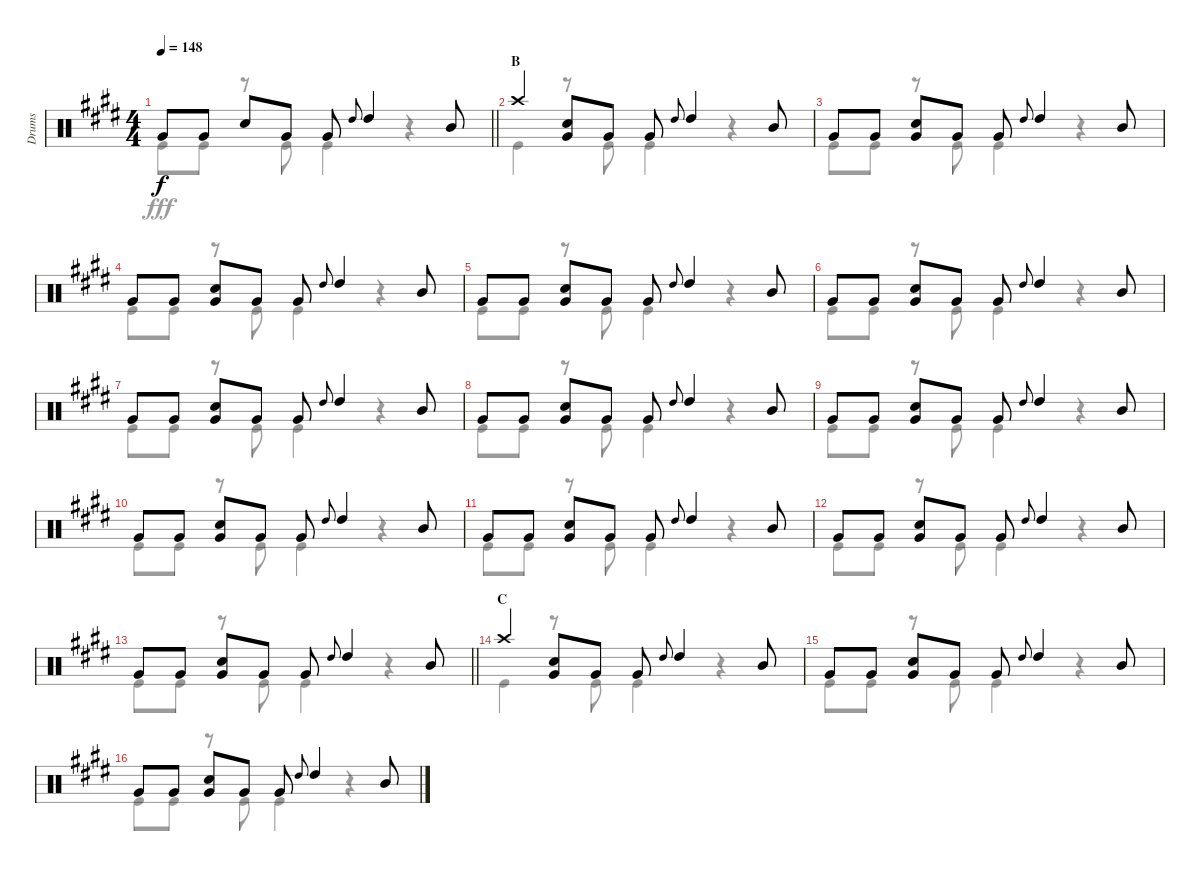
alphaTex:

\track ("Drums" "Drums") {instrument percussion}
\staff {score}
\articulation defaults
\voice
\ts (4 4)
\tempo 148
\clef neutral
\barLineRight lightlight
\ks e "Very Low Tom (hit)".8{dy f} "Very Low Tom (hit)".8 "Snare (hit) 2".8 "Very Low Tom (hit)".8 "Very Low Tom (hit)".8 "High Tom (hit)".8{gr onbeat} "High Tom (hit)".4 "Mid Tom (hit)".8
|
\section ("" "B")
"Crash high (hit)".4 ("Snare (hit) 2" "Very Low Tom (hit)").8 "Very Low Tom (hit)".8 "Very Low Tom (hit)".8 "High Tom (hit)".8{gr onbeat} "High Tom (hit)".4 "Mid Tom (hit)".8 |
"Very Low Tom (hit)".8 "Very Low Tom (hit)".8 ("Snare (hit) 2" "Very Low Tom (hit)").8 "Very Low Tom (hit)".8 "Very Low Tom (hit)".8 "High Tom (hit)".8{gr onbeat} "High Tom (hit)".4 "Mid Tom (hit)".8 |
"Very Low Tom (hit)".8 "Very Low Tom (hit)".8 ("Snare (hit) 2" "Very Low Tom (hit)").8 "Very Low Tom (hit)".8 "Very Low Tom (hit)".8 "High Tom (hit)".8{gr onbeat} "High Tom (hit)".4 "Mid Tom (hit)".8 |
"Very Low Tom (hit)".8 "Very Low Tom (hit)".8 ("Snare (hit) 2" "Very Low Tom (hit)").8 "Very Low Tom (hit)".8 "Very Low Tom (hit)".8 "High Tom (hit)".8{gr onbeat} "High Tom (hit)".4 "Mid Tom (hit)".8 |
"Very Low Tom (hit)".8 "Very Low Tom (hit)".8 ("Snare (hit) 2" "Very Low Tom (hit)").8 "Very Low Tom (hit)".8 "Very Low Tom (hit)".8 "High Tom (hit)".8{gr onbeat} "High Tom (hit)".4 "Mid Tom (hit)".8 |
"Very Low Tom (hit)".8 "Very Low Tom (hit)".8 ("Snare (hit) 2" "Very Low Tom (hit)").8 "Very Low Tom (hit)".8 "Very Low Tom (hit)".8 "High Tom (hit)".8{gr onbeat} "High Tom (hit)".4 "Mid Tom (hit)".8 |
"Very Low Tom (hit)".8 "Very Low Tom (hit)".8 ("Snare (hit) 2" "Very Low Tom (hit)").8 "Very Low Tom (hit)".8 "Very Low Tom (hit)".8 "High Tom (hit)".8{gr onbeat} "High Tom (hit)".4 "Mid Tom (hit)".8 |
"Very Low Tom (hit)".8 "Very Low Tom (hit)".8 ("Snare (hit) 2" "Very Low Tom (hit)").8 "Very Low Tom (hit)".8 "Very Low Tom (hit)".8 "High Tom (hit)".8{gr onbeat} "High Tom (hit)".4 "Mid Tom (hit)".8 |
"Very Low Tom (hit)".8 "Very Low Tom (hit)".8 ("Snare (hit) 2" "Very Low Tom (hit)").8 "Very Low Tom (hit)".8 "Very Low Tom (hit)".8 "High Tom (hit)".8{gr onbeat} "High Tom (hit)".4 "Mid Tom (hit)".8 |
"Very Low Tom (hit)".8 "Very Low Tom (hit)".8 ("Snare (hit) 2" "Very Low Tom (hit)").8 "Very Low Tom (hit)".8 "Very Low Tom (hit)".8 "High Tom (hit)".8{gr onbeat} "High Tom (hit)".4 "Mid Tom (hit)".8 |
"Very Low Tom (hit)".8 "Very Low Tom (hit)".8 ("Snare (hit) 2" "Very Low Tom (hit)").8 "Very Low Tom (hit)".8 "Very Low Tom (hit)".8 "High Tom (hit)".8{gr onbeat} "High Tom (hit)".4 "Mid Tom (hit)".8 |
\barLineRight lightlight "Very Low Tom (hit)".8 "Very Low Tom (hit)".8
("Snare (hit) 2" "Very Low Tom (hit)").8 "Very Low Tom (hit)".8 "Very Low Tom (hit)".8 "High Tom (hit)".8{gr onbeat} "High Tom (hit)".4 "Mid Tom (hit)".8 |
\section ("" "C")
"Crash high (hit)".4 ("Snare (hit) 2" "Very Low Tom (hit)").8 "Very Low Tom (hit)".8 "Very Low Tom (hit)".8 "High Tom (hit)".8{gr onbeat} "High Tom (hit)".4 "Mid Tom (hit)".8 |
"Very Low Tom (hit)".8 "Very Low Tom (hit)".8 ("Snare (hit) 2" "Very Low Tom (hit)").8 "Very Low Tom (hit)".8 "Very Low Tom (hit)".8 "High Tom (hit)".8{gr onbeat} "High Tom (hit)".4 "Mid Tom (hit)".8 |
"Very Low Tom (hit)".8 "Very Low Tom (hit)".8 ("Snare (hit) 2" "Very Low Tom (hit)").8 "Very Low Tom (hit)".8 "Very Low Tom (hit)".8 "High Tom (hit)".8{gr onbeat} "High Tom (hit)".4 "Mid Tom (hit)".8
\voice
\clef neutral
\ottava regular
\simile none
\barLineRight lightlight
\ks e "Kick (hit)".8{dy fff} "Kick (hit)".8
r.8 "Kick (hit)".8 "Kick (hit)".4 r.4 |
"Kick (hit)".4 r.8 "Kick (hit)".8 "Kick (hit)".4 r.4 |
"Kick (hit)".8 "Kick (hit)".8 r.8 "Kick (hit)".8 "Kick (hit)".4 r.4 |
"Kick (hit)".8 "Kick (hit)".8 r.8 "Kick (hit)".8 "Kick (hit)".4 r.4 |
"Kick (hit)".8 "Kick (hit)".8 r.8 "Kick (hit)".8 "Kick (hit)".4 r.4 |
"Kick (hit)".8 "Kick (hit)".8 r.8 "Kick (hit)".8 "Kick (hit)".4 r.4 |
"Kick (hit)".8 "Kick (hit)".8 r.8 "Kick (hit)".8 "Kick (hit)".4 r.4 |
"Kick (hit)".8 "Kick (hit)".8 r.8 "Kick (hit)".8 "Kick (hit)".4 r.4 |
"Kick (hit)".8 "Kick (hit)".8 r.8 "Kick (hit)".8 "Kick (hit)".4 r.4 |
"Kick (hit)".8 "Kick (hit)".8 r.8 "Kick (hit)".8 "Kick (hit)".4 r.4 |
"Kick (hit)".8 "Kick (hit)".8 r.8 "Kick (hit)".8 "Kick (hit)".4 r.4 |
"Kick (hit)".8 "Kick (hit)".8 r.8 "Kick (hit)".8 "Kick (hit)".4 r.4 |
\barLineRight lightlight "Kick (hit)".8 "Kick (hit)".8
r.8 "Kick (hit)".8 "Kick (hit)".4 r.4 |
"Kick (hit)".4 r.8 "Kick (hit)".8 "Kick (hit)".4 r.4 |
"Kick (hit)".8 "Kick (hit)".8 r.8 "Kick (hit)".8 "Kick (hit)".4 r.4 |
"Kick (hit)".8 "Kick (hit)".8 r.8 "Kick (hit)".8 "Kick (hit)".4 r.4
